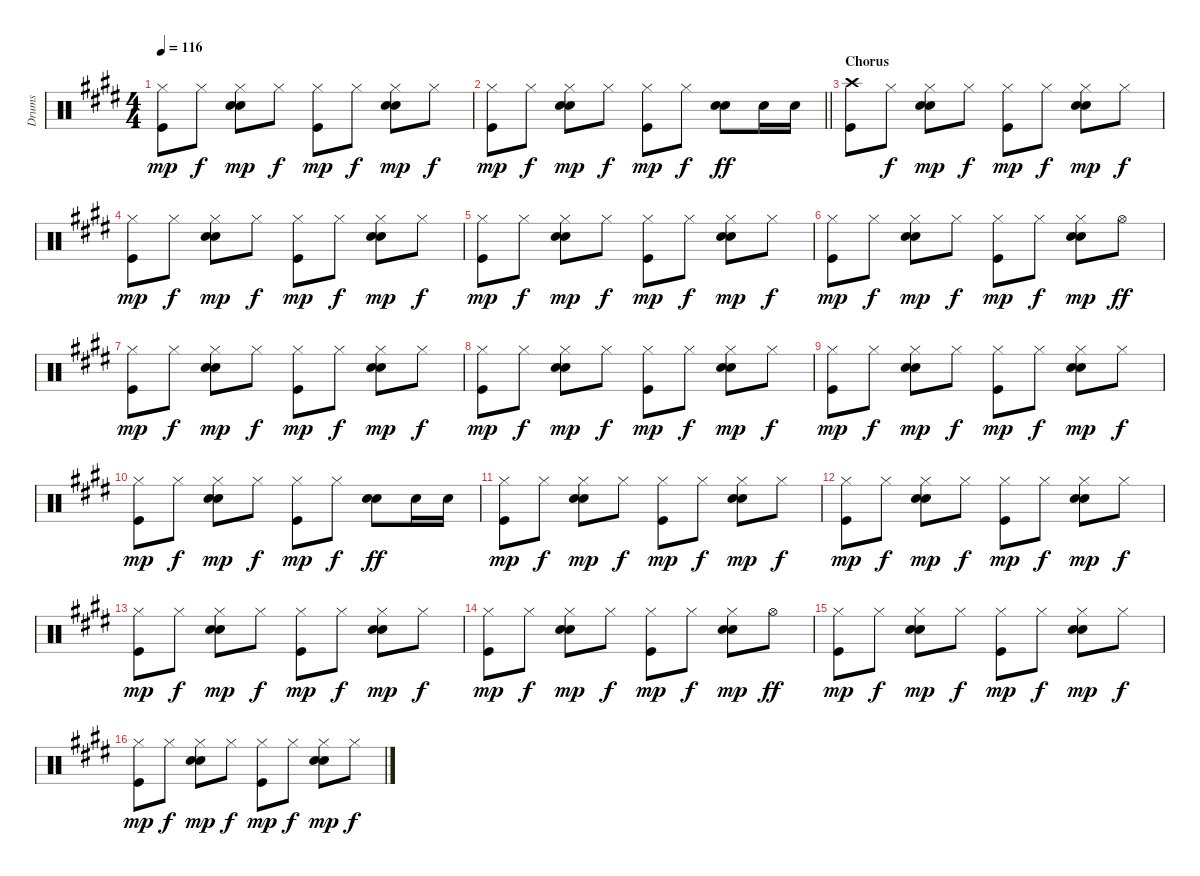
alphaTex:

\track ("Drums" "Drums") {instrument percussion}
\staff {score}
\articulation defaults
\ts (4 4)
\tempo 116
\clef neutral
\ks e
("Kick (hit)" "Hi-Hat (closed)").8{dy mp} "Hi-Hat (closed)".8{dy f} ("Hand Clap (hit)" "Electric Snare (hit)" "Hi-Hat (closed)").8{dy mp} "Hi-Hat (closed)".8{dy f} ("Kick (hit)" "Hi-Hat (closed)").8{dy mp} "Hi-Hat (closed)".8{dy f} ("Hand Clap (hit)" "Electric Snare (hit)" "Hi-Hat (closed)").8{dy mp} "Hi-Hat (closed)".8{dy f} |
\barLineRight lightlight
("Kick (hit)" "Hi-Hat (closed)").8{dy mp} "Hi-Hat (closed)".8{dy f} ("Hand Clap (hit)" "Electric Snare (hit)" "Hi-Hat (closed)").8{dy mp} "Hi-Hat (closed)".8{dy f} ("Kick (hit)" "Hi-Hat (closed)").8{dy mp} "Hi-Hat (closed)".8{dy f} ("Hand Clap (hit)" "Electric Snare (hit)").8{dy ff} "Electric Snare (hit)".16 "Electric Snare (hit)".16 |
\section ("" "Chorus")
("Kick (hit)" "Crash high (hit)").8 "Hi-Hat (closed)".8{dy f} ("Hand Clap (hit)" "Electric Snare (hit)" "Hi-Hat (closed)").8{dy mp} "Hi-Hat (closed)".8{dy f} ("Kick (hit)" "Hi-Hat (closed)").8{dy mp} "Hi-Hat (closed)".8{dy f} ("Hand Clap (hit)" "Electric Snare (hit)" "Hi-Hat (closed)").8{dy mp} "Hi-Hat (closed)".8{dy f} |
("Kick (hit)" "Hi-Hat (closed)").8{dy mp} "Hi-Hat (closed)".8{dy f} ("Hand Clap (hit)" "Electric Snare (hit)" "Hi-Hat (closed)").8{dy mp} "Hi-Hat (closed)".8{dy f} ("Kick (hit)" "Hi-Hat (closed)").8{dy mp} "Hi-Hat (closed)".8{dy f} ("Hand Clap (hit)" "Electric Snare (hit)" "Hi-Hat (closed)").8{dy mp} "Hi-Hat (closed)".8{dy f} |
("Kick (hit)" "Hi-Hat (closed)").8{dy mp} "Hi-Hat (closed)".8{dy f} ("Hand Clap (hit)" "Electric Snare (hit)" "Hi-Hat (closed)").8{dy mp} "Hi-Hat (closed)".8{dy f} ("Kick (hit)" "Hi-Hat (closed)").8{dy mp} "Hi-Hat (closed)".8{dy f} ("Hand Clap (hit)" "Electric Snare (hit)" "Hi-Hat (closed)").8{dy mp} "Hi-Hat (closed)".8{dy f} |
("Kick (hit)" "Hi-Hat (closed)").8{dy mp} "Hi-Hat (closed)".8{dy f} ("Hand Clap (hit)" "Electric Snare (hit)" "Hi-Hat (closed)").8{dy mp} "Hi-Hat (closed)".8{dy f} ("Kick (hit)" "Hi-Hat (closed)").8{dy mp} "Hi-Hat (closed)".8{dy f} ("Hand Clap (hit)" "Electric Snare (hit)" "Hi-Hat (closed)").8{dy mp} "Hi-Hat (open)".8{dy ff} |
("Kick (hit)" "Hi-Hat (closed)").8{dy mp} "Hi-Hat (closed)".8{dy f} ("Hand Clap (hit)" "Electric Snare (hit)" "Hi-Hat (closed)").8{dy mp} "Hi-Hat (closed)".8{dy f} ("Kick (hit)" "Hi-Hat (closed)").8{dy mp} "Hi-Hat (closed)".8{dy f} ("Hand Clap (hit)" "Electric Snare (hit)" "Hi-Hat (closed)").8{dy mp} "Hi-Hat (closed)".8{dy f} |
("Kick (hit)" "Hi-Hat (closed)").8{dy mp} "Hi-Hat (closed)".8{dy f} ("Hand Clap (hit)" "Electric Snare (hit)" "Hi-Hat (closed)").8{dy mp} "Hi-Hat (closed)".8{dy f} ("Kick (hit)" "Hi-Hat (closed)").8{dy mp} "Hi-Hat (closed)".8{dy f} ("Hand Clap (hit)" "Electric Snare (hit)" "Hi-Hat (closed)").8{dy mp} "Hi-Hat (closed)".8{dy f} |
("Kick (hit)" "Hi-Hat (closed)").8{dy mp} "Hi-Hat (closed)".8{dy f} ("Hand Clap (hit)" "Electric Snare (hit)" "Hi-Hat (closed)").8{dy mp} "Hi-Hat (closed)".8{dy f} ("Kick (hit)" "Hi-Hat (closed)").8{dy mp} "Hi-Hat (closed)".8{dy f} ("Hand Clap (hit)" "Electric Snare (hit)" "Hi-Hat (closed)").8{dy mp} "Hi-Hat (closed)".8{dy f} |
("Kick (hit)" "Hi-Hat (closed)").8{dy mp} "Hi-Hat (closed)".8{dy f} ("Hand Clap (hit)" "Electric Snare (hit)" "Hi-Hat (closed)").8{dy mp} "Hi-Hat (closed)".8{dy f} ("Kick (hit)" "Hi-Hat (closed)").8{dy mp} "Hi-Hat (closed)".8{dy f} ("Hand Clap (hit)" "Electric Snare (hit)").8{dy ff} "Electric Snare (hit)".16 "Electric Snare (hit)".16 |
("Kick (hit)" "Hi-Hat (closed)").8{dy mp} "Hi-Hat (closed)".8{dy f} ("Hand Clap (hit)" "Electric Snare (hit)" "Hi-Hat (closed)").8{dy mp} "Hi-Hat (closed)".8{dy f} ("Kick (hit)" "Hi-Hat (closed)").8{dy mp} "Hi-Hat (closed)".8{dy f} ("Hand Clap (hit)" "Electric Snare (hit)" "Hi-Hat (closed)").8{dy mp} "Hi-Hat (closed)".8{dy f} |
("Kick (hit)" "Hi-Hat (closed)").8{dy mp} "Hi-Hat (closed)".8{dy f} ("Hand Clap (hit)" "Electric Snare (hit)" "Hi-Hat (closed)").8{dy mp} "Hi-Hat (closed)".8{dy f} ("Kick (hit)" "Hi-Hat (closed)").8{dy mp} "Hi-Hat (closed)".8{dy f} ("Hand Clap (hit)" "Electric Snare (hit)" "Hi-Hat (closed)").8{dy mp} "Hi-Hat (closed)".8{dy f} |
("Kick (hit)" "Hi-Hat (closed)").8{dy mp} "Hi-Hat (closed)".8{dy f} ("Hand Clap (hit)" "Electric Snare (hit)" "Hi-Hat (closed)").8{dy mp} "Hi-Hat (closed)".8{dy f} ("Kick (hit)" "Hi-Hat (closed)").8{dy mp} "Hi-Hat (closed)".8{dy f} ("Hand Clap (hit)" "Electric Snare (hit)" "Hi-Hat (closed)").8{dy mp} "Hi-Hat (closed)".8{dy f} |
("Kick (hit)" "Hi-Hat (closed)").8{dy mp} "Hi-Hat (closed)".8{dy f} ("Hand Clap (hit)" "Electric Snare (hit)" "Hi-Hat (closed)").8{dy mp} "Hi-Hat (closed)".8{dy f} ("Kick (hit)" "Hi-Hat (closed)").8{dy mp} "Hi-Hat (closed)".8{dy f} ("Hand Clap (hit)" "Electric Snare (hit)" "Hi-Hat (closed)").8{dy mp} "Hi-Hat (open)".8{dy ff} |
("Kick (hit)" "Hi-Hat (closed)").8{dy mp} "Hi-Hat (closed)".8{dy f} ("Hand Clap (hit)" "Electric Snare (hit)" "Hi-Hat (closed)").8{dy mp} "Hi-Hat (closed)".8{dy f} ("Kick (hit)" "Hi-Hat (closed)").8{dy mp} "Hi-Hat (closed)".8{dy f} ("Hand Clap (hit)" "Electric Snare (hit)" "Hi-Hat (closed)").8{dy mp} "Hi-Hat (closed)".8{dy f} |
("Kick (hit)" "Hi-Hat (closed)").8{dy mp} "Hi-Hat (closed)".8{dy f} ("Hand Clap (hit)" "Electric Snare (hit)" "Hi-Hat (closed)").8{dy mp} "Hi-Hat (closed)".8{dy f} ("Kick (hit)" "Hi-Hat (closed)").8{dy mp} "Hi-Hat (closed)".8{dy f} ("Hand Clap (hit)" "Electric Snare (hit)" "Hi-Hat (closed)").8{dy mp} "Hi-Hat (closed)".8{dy f}
